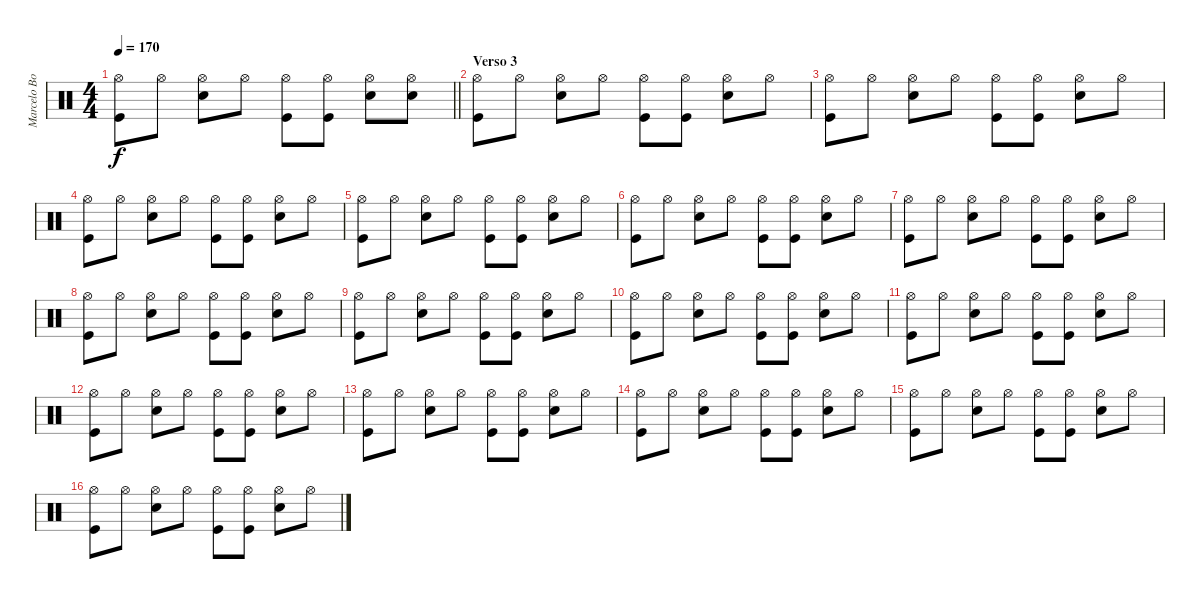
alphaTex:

\track ("Marcelo Bonfá" "Marcelo Bo") {instrument percussion}
\staff {score}
\articulation defaults
\ts (4 4)
\tempo 170
\clef neutral
\barLineRight lightlight
\ks c
("Hi-Hat (open)" "Kick (hit)").8{dy f} "Hi-Hat (open)".8 ("Hi-Hat (open)" "Snare (hit) 2").8 "Hi-Hat (open)".8 ("Hi-Hat (open)" "Kick (hit)").8 ("Hi-Hat (open)" "Kick (hit)").8 ("Hi-Hat (open)" "Snare (hit) 2").8 ("Hi-Hat (open)" "Snare (hit) 2").8 |
\section ("" "Verso 3")
("Hi-Hat (open)" "Kick (hit)").8 "Hi-Hat (open)".8 ("Hi-Hat (open)" "Snare (hit) 2").8 "Hi-Hat (open)".8 ("Hi-Hat (open)" "Kick (hit)").8 ("Hi-Hat (open)" "Kick (hit)").8 ("Hi-Hat (open)" "Snare (hit) 2").8 "Hi-Hat (open)".8 |
("Hi-Hat (open)" "Kick (hit)").8 "Hi-Hat (open)".8 ("Hi-Hat (open)" "Snare (hit) 2").8 "Hi-Hat (open)".8 ("Hi-Hat (open)" "Kick (hit)").8 ("Hi-Hat (open)" "Kick (hit)").8 ("Hi-Hat (open)" "Snare (hit) 2").8 "Hi-Hat (open)".8 |
("Hi-Hat (open)" "Kick (hit)").8 "Hi-Hat (open)".8 ("Hi-Hat (open)" "Snare (hit) 2").8 "Hi-Hat (open)".8 ("Hi-Hat (open)" "Kick (hit)").8 ("Hi-Hat (open)" "Kick (hit)").8 ("Hi-Hat (open)" "Snare (hit) 2").8 "Hi-Hat (open)".8 |
("Hi-Hat (open)" "Kick (hit)").8 "Hi-Hat (open)".8 ("Hi-Hat (open)" "Snare (hit) 2").8 "Hi-Hat (open)".8 ("Hi-Hat (open)" "Kick (hit)").8 ("Hi-Hat (open)" "Kick (hit)").8 ("Hi-Hat (open)" "Snare (hit) 2").8 "Hi-Hat (open)".8 |
("Hi-Hat (open)" "Kick (hit)").8 "Hi-Hat (open)".8 ("Hi-Hat (open)" "Snare (hit) 2").8 "Hi-Hat (open)".8 ("Hi-Hat (open)" "Kick (hit)").8 ("Hi-Hat (open)" "Kick (hit)").8 ("Hi-Hat (open)" "Snare (hit) 2").8 "Hi-Hat (open)".8 |
("Hi-Hat (open)" "Kick (hit)").8 "Hi-Hat (open)".8 ("Hi-Hat (open)" "Snare (hit) 2").8 "Hi-Hat (open)".8 ("Hi-Hat (open)" "Kick (hit)").8 ("Hi-Hat (open)" "Kick (hit)").8 ("Hi-Hat (open)" "Snare (hit) 2").8 "Hi-Hat (open)".8 |
("Hi-Hat (open)" "Kick (hit)").8 "Hi-Hat (open)".8 ("Hi-Hat (open)" "Snare (hit) 2").8 "Hi-Hat (open)".8 ("Hi-Hat (open)" "Kick (hit)").8 ("Hi-Hat (open)" "Kick (hit)").8 ("Hi-Hat (open)" "Snare (hit) 2").8 "Hi-Hat (open)".8 |
("Hi-Hat (open)" "Kick (hit)").8 "Hi-Hat (open)".8 ("Hi-Hat (open)" "Snare (hit) 2").8 "Hi-Hat (open)".8 ("Hi-Hat (open)" "Kick (hit)").8 ("Hi-Hat (open)" "Kick (hit)").8 ("Hi-Hat (open)" "Snare (hit) 2").8 "Hi-Hat (open)".8 |
("Hi-Hat (open)" "Kick (hit)").8 "Hi-Hat (open)".8 ("Hi-Hat (open)" "Snare (hit) 2").8 "Hi-Hat (open)".8 ("Hi-Hat (open)" "Kick (hit)").8 ("Hi-Hat (open)" "Kick (hit)").8 ("Hi-Hat (open)" "Snare (hit) 2").8 "Hi-Hat (open)".8 |
("Hi-Hat (open)" "Kick (hit)").8 "Hi-Hat (open)".8 ("Hi-Hat (open)" "Snare (hit) 2").8 "Hi-Hat (open)".8 ("Hi-Hat (open)" "Kick (hit)").8 ("Hi-Hat (open)" "Kick (hit)").8 ("Hi-Hat (open)" "Snare (hit) 2").8 "Hi-Hat (open)".8 |
("Hi-Hat (open)" "Kick (hit)").8 "Hi-Hat (open)".8 ("Hi-Hat (open)" "Snare (hit) 2").8 "Hi-Hat (open)".8 ("Hi-Hat (open)" "Kick (hit)").8 ("Hi-Hat (open)" "Kick (hit)").8 ("Hi-Hat (open)" "Snare (hit) 2").8 "Hi-Hat (open)".8 |
("Hi-Hat (open)" "Kick (hit)").8 "Hi-Hat (open)".8 ("Hi-Hat (open)" "Snare (hit) 2").8 "Hi-Hat (open)".8 ("Hi-Hat (open)" "Kick (hit)").8 ("Hi-Hat (open)" "Kick (hit)").8 ("Hi-Hat (open)" "Snare (hit) 2").8 "Hi-Hat (open)".8 |
("Hi-Hat (open)" "Kick (hit)").8 "Hi-Hat (open)".8 ("Hi-Hat (open)" "Snare (hit) 2").8 "Hi-Hat (open)".8 ("Hi-Hat (open)" "Kick (hit)").8 ("Hi-Hat (open)" "Kick (hit)").8 ("Hi-Hat (open)" "Snare (hit) 2").8 "Hi-Hat (open)".8 |
("Hi-Hat (open)" "Kick (hit)").8 "Hi-Hat (open)".8 ("Hi-Hat (open)" "Snare (hit) 2").8 "Hi-Hat (open)".8 ("Hi-Hat (open)" "Kick (hit)").8 ("Hi-Hat (open)" "Kick (hit)").8 ("Hi-Hat (open)" "Snare (hit) 2").8 "Hi-Hat (open)".8 |
("Hi-Hat (open)" "Kick (hit)").8 "Hi-Hat (open)".8 ("Hi-Hat (open)" "Snare (hit) 2").8 "Hi-Hat (open)".8 ("Hi-Hat (open)" "Kick (hit)").8 ("Hi-Hat (open)" "Kick (hit)").8 ("Hi-Hat (open)" "Snare (hit) 2").8 "Hi-Hat (open)".8
